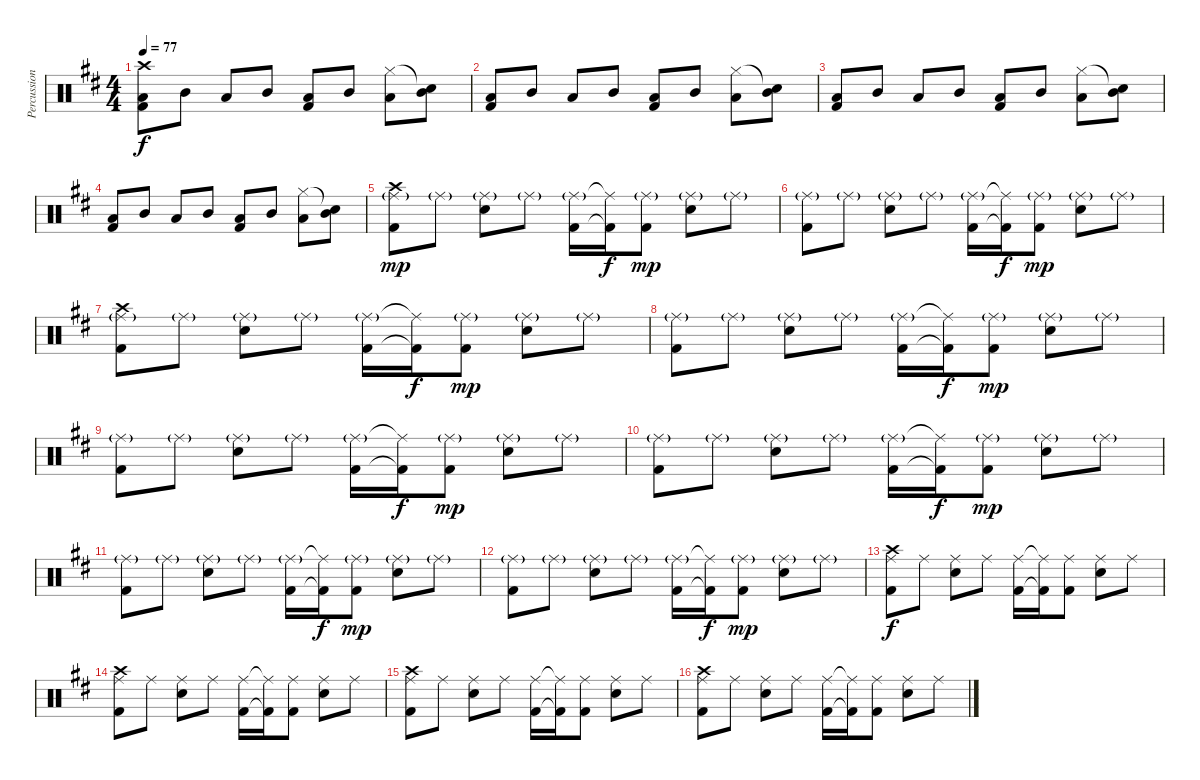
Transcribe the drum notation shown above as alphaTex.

\track ("Percussion" "Percussion") {instrument percussion}
\staff {score}
\articulation defaults
\ts (4 4)
\tempo 77
\clef neutral
\ks d
("Low Tom (hit)" "Kick (hit) 2" "Crash high (hit)").8{dy f} "Mid Tom (hit)".8 "Low Tom (hit)".8 "Mid Tom (hit)".8 ("Low Tom (hit)" "Kick (hit) 2").8 "Mid Tom (hit)".8 ("Low Tom (hit)" "Hi-Hat (closed)").8 ("Mid Tom (hit)" "Snare (hit)"{t}).8 |
("Low Tom (hit)" "Kick (hit) 2").8 "Mid Tom (hit)".8 "Low Tom (hit)".8 "Mid Tom (hit)".8 ("Low Tom (hit)" "Kick (hit) 2").8 "Mid Tom (hit)".8 ("Low Tom (hit)" "Hi-Hat (closed)").8 ("Mid Tom (hit)" "Snare (hit)"{t}).8 |
("Low Tom (hit)" "Kick (hit) 2").8 "Mid Tom (hit)".8 "Low Tom (hit)".8 "Mid Tom (hit)".8 ("Low Tom (hit)" "Kick (hit) 2").8 "Mid Tom (hit)".8 ("Low Tom (hit)" "Hi-Hat (closed)").8 ("Mid Tom (hit)" "Snare (hit)"{t}).8 |
("Low Tom (hit)" "Kick (hit) 2").8 "Mid Tom (hit)".8 "Low Tom (hit)".8 "Mid Tom (hit)".8 ("Low Tom (hit)" "Kick (hit) 2").8 "Mid Tom (hit)".8 ("Low Tom (hit)" "Hi-Hat (closed)").8 ("Mid Tom (hit)" "Snare (hit)"{t}).8 |
("Ride (middle)"{g} "Kick (hit) 2" "Crash high (hit)").8{dy mp} "Ride (middle)"{g}.8 ("Ride (middle)"{g} "Snare (hit) 2").8 "Ride (middle)"{g}.8 ("Ride (middle)"{g} "Kick (hit) 2").16 ("Ride (middle)"{t} "Kick (hit) 2"{t}).16{dy f} ("Ride (middle)"{g} "Kick (hit) 2").8{dy mp} ("Ride (middle)"{g} "Snare (hit) 2").8 "Ride (middle)"{g}.8 |
("Ride (middle)"{g} "Kick (hit) 2").8 "Ride (middle)"{g}.8 ("Ride (middle)"{g} "Snare (hit) 2").8 "Ride (middle)"{g}.8 ("Ride (middle)"{g} "Kick (hit) 2").16 ("Ride (middle)"{t} "Kick (hit) 2"{t}).16{dy f} ("Ride (middle)"{g} "Kick (hit) 2").8{dy mp} ("Ride (middle)"{g} "Snare (hit) 2").8 "Ride (middle)"{g}.8 |
("Ride (middle)"{g} "Kick (hit) 2" "Crash high (hit)").8 "Ride (middle)"{g}.8 ("Ride (middle)"{g} "Snare (hit) 2").8 "Ride (middle)"{g}.8 ("Ride (middle)"{g} "Kick (hit) 2").16 ("Ride (middle)"{t} "Kick (hit) 2"{t}).16{dy f} ("Ride (middle)"{g} "Kick (hit) 2").8{dy mp} ("Ride (middle)"{g} "Snare (hit) 2").8 "Ride (middle)"{g}.8 |
("Ride (middle)"{g} "Kick (hit) 2").8 "Ride (middle)"{g}.8 ("Ride (middle)"{g} "Snare (hit) 2").8 "Ride (middle)"{g}.8 ("Ride (middle)"{g} "Kick (hit) 2").16 ("Ride (middle)"{t} "Kick (hit) 2"{t}).16{dy f} ("Ride (middle)"{g} "Kick (hit) 2").8{dy mp} ("Ride (middle)"{g} "Snare (hit) 2").8 "Ride (middle)"{g}.8 |
("Ride (middle)"{g} "Kick (hit) 2").8 "Ride (middle)"{g}.8 ("Ride (middle)"{g} "Snare (hit) 2").8 "Ride (middle)"{g}.8 ("Ride (middle)"{g} "Kick (hit) 2").16 ("Ride (middle)"{t} "Kick (hit) 2"{t}).16{dy f} ("Ride (middle)"{g} "Kick (hit) 2").8{dy mp} ("Ride (middle)"{g} "Snare (hit) 2").8 "Ride (middle)"{g}.8 |
("Ride (middle)"{g} "Kick (hit) 2").8 "Ride (middle)"{g}.8 ("Ride (middle)"{g} "Snare (hit) 2").8 "Ride (middle)"{g}.8 ("Ride (middle)"{g} "Kick (hit) 2").16 ("Ride (middle)"{t} "Kick (hit) 2"{t}).16{dy f} ("Ride (middle)"{g} "Kick (hit) 2").8{dy mp} ("Ride (middle)"{g} "Snare (hit) 2").8 "Ride (middle)"{g}.8 |
("Ride (middle)"{g} "Kick (hit) 2").8 "Ride (middle)"{g}.8 ("Ride (middle)"{g} "Snare (hit) 2").8 "Ride (middle)"{g}.8 ("Ride (middle)"{g} "Kick (hit) 2").16 ("Ride (middle)"{t} "Kick (hit) 2"{t}).16{dy f} ("Ride (middle)"{g} "Kick (hit) 2").8{dy mp} ("Ride (middle)"{g} "Snare (hit) 2").8 "Ride (middle)"{g}.8 |
("Ride (middle)"{g} "Kick (hit) 2").8 "Ride (middle)"{g}.8 ("Ride (middle)"{g} "Snare (hit) 2").8 "Ride (middle)"{g}.8 ("Ride (middle)"{g} "Kick (hit) 2").16 ("Ride (middle)"{t} "Kick (hit) 2"{t}).16{dy f} ("Ride (middle)"{g} "Kick (hit) 2").8{dy mp} ("Ride (middle)"{g} "Snare (hit) 2").8 "Ride (middle)"{g}.8 |
("Ride (middle)" "Kick (hit) 2" "Crash high (hit)").8{dy f} "Ride (middle)".8 ("Ride (middle)" "Snare (hit) 2").8 "Ride (middle)".8 ("Ride (middle)" "Kick (hit) 2").16 ("Ride (middle)"{t} "Kick (hit) 2"{t}).16 ("Ride (middle)" "Kick (hit) 2").8 ("Ride (middle)" "Snare (hit) 2").8 "Ride (middle)".8 |
("Ride (middle)" "Kick (hit) 2" "Crash high (hit)").8 "Ride (middle)".8 ("Ride (middle)" "Snare (hit) 2").8 "Ride (middle)".8 ("Ride (middle)" "Kick (hit) 2").16 ("Ride (middle)"{t} "Kick (hit) 2"{t}).16 ("Ride (middle)" "Kick (hit) 2").8 ("Ride (middle)" "Snare (hit) 2").8 "Ride (middle)".8 |
("Ride (middle)" "Kick (hit) 2" "Crash high (hit)").8 "Ride (middle)".8 ("Ride (middle)" "Snare (hit) 2").8 "Ride (middle)".8 ("Ride (middle)" "Kick (hit) 2").16 ("Ride (middle)"{t} "Kick (hit) 2"{t}).16 ("Ride (middle)" "Kick (hit) 2").8 ("Ride (middle)" "Snare (hit) 2").8 "Ride (middle)".8 |
("Ride (middle)" "Kick (hit) 2" "Crash high (hit)").8 "Ride (middle)".8 ("Ride (middle)" "Snare (hit) 2").8 "Ride (middle)".8 ("Ride (middle)" "Kick (hit) 2").16 ("Ride (middle)"{t} "Kick (hit) 2"{t}).16 ("Ride (middle)" "Kick (hit) 2").8 ("Ride (middle)" "Snare (hit) 2").8 "Ride (middle)".8
